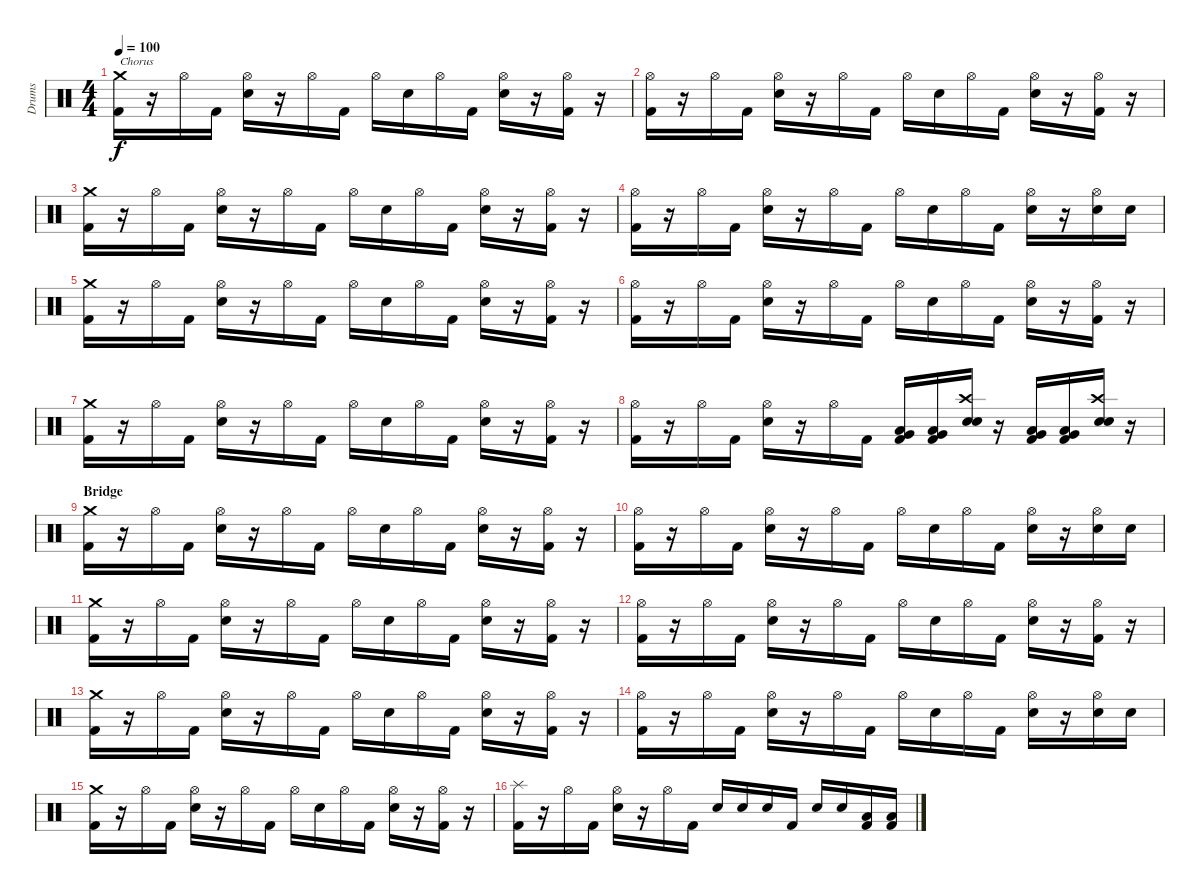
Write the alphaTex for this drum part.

\track ("Drums" "Drums") {instrument percussion}
\staff {score}
\articulation defaults
\ts (4 4)
\tempo 100
\clef neutral
\ks c
("Crash medium (hit)" "Kick (hit) 2").16{txt "Chorus " dy f} r.16 "Hi-Hat (open)".16 "Kick (hit) 2".16 ("Hi-Hat (open)" "Electric Snare (hit)").16 r.16 "Hi-Hat (open)".16 "Kick (hit) 2".16 "Hi-Hat (open)".16 "Electric Snare (hit)".16 "Hi-Hat (open)".16 "Kick (hit) 2".16 ("Hi-Hat (open)" "Electric Snare (hit)").16 r.16 ("Hi-Hat (open)" "Kick (hit) 2").16 r.16 |
("Hi-Hat (open)" "Kick (hit) 2").16 r.16 "Hi-Hat (open)".16 "Kick (hit) 2".16 ("Hi-Hat (open)" "Electric Snare (hit)").16 r.16 "Hi-Hat (open)".16 "Kick (hit) 2".16 "Hi-Hat (open)".16 "Electric Snare (hit)".16 "Hi-Hat (open)".16 "Kick (hit) 2".16 ("Hi-Hat (open)" "Electric Snare (hit)").16 r.16 ("Hi-Hat (open)" "Kick (hit) 2").16 r.16 |
("Crash medium (hit)" "Kick (hit) 2").16 r.16 "Hi-Hat (open)".16 "Kick (hit) 2".16 ("Hi-Hat (open)" "Electric Snare (hit)").16 r.16 "Hi-Hat (open)".16 "Kick (hit) 2".16 "Hi-Hat (open)".16 "Electric Snare (hit)".16 "Hi-Hat (open)".16 "Kick (hit) 2".16 ("Hi-Hat (open)" "Electric Snare (hit)").16 r.16 ("Hi-Hat (open)" "Kick (hit) 2").16 r.16 |
("Hi-Hat (open)" "Kick (hit) 2").16 r.16 "Hi-Hat (open)".16 "Kick (hit) 2".16 ("Hi-Hat (open)" "Electric Snare (hit)").16 r.16 "Hi-Hat (open)".16 "Kick (hit) 2".16 "Hi-Hat (open)".16 "Electric Snare (hit)".16 "Hi-Hat (open)".16 "Kick (hit) 2".16 ("Hi-Hat (open)" "Electric Snare (hit)").16 r.16 ("Hi-Hat (open)" "Electric Snare (hit)").16 "Electric Snare (hit)".16 |
("Crash medium (hit)" "Kick (hit) 2").16 r.16 "Hi-Hat (open)".16 "Kick (hit) 2".16 ("Hi-Hat (open)" "Electric Snare (hit)").16 r.16 "Hi-Hat (open)".16 "Kick (hit) 2".16 "Hi-Hat (open)".16 "Electric Snare (hit)".16 "Hi-Hat (open)".16 "Kick (hit) 2".16 ("Hi-Hat (open)" "Electric Snare (hit)").16 r.16 ("Hi-Hat (open)" "Kick (hit) 2").16 r.16 |
("Hi-Hat (open)" "Kick (hit) 2").16 r.16 "Hi-Hat (open)".16 "Kick (hit) 2".16 ("Hi-Hat (open)" "Electric Snare (hit)").16 r.16 "Hi-Hat (open)".16 "Kick (hit) 2".16 "Hi-Hat (open)".16 "Electric Snare (hit)".16 "Hi-Hat (open)".16 "Kick (hit) 2".16 ("Hi-Hat (open)" "Electric Snare (hit)").16 r.16 ("Hi-Hat (open)" "Kick (hit) 2").16 r.16 |
("Crash medium (hit)" "Kick (hit) 2").16 r.16 "Hi-Hat (open)".16 "Kick (hit) 2".16 ("Hi-Hat (open)" "Electric Snare (hit)").16 r.16 "Hi-Hat (open)".16 "Kick (hit) 2".16 "Hi-Hat (open)".16 "Electric Snare (hit)".16 "Hi-Hat (open)".16 "Kick (hit) 2".16 ("Hi-Hat (open)" "Electric Snare (hit)").16 r.16 ("Hi-Hat (open)" "Kick (hit) 2").16 r.16 |
("Hi-Hat (open)" "Kick (hit) 2").16 r.16 "Hi-Hat (open)".16 "Kick (hit) 2".16 ("Hi-Hat (open)" "Electric Snare (hit)").16 r.16 "Hi-Hat (open)".16 "Kick (hit) 2".16 ("Very Low Tom (hit)" "Low Floor Tom (hit)" "Kick (hit) 2").16 ("Very Low Tom (hit)" "Low Floor Tom (hit)" "Kick (hit) 2").16 ("Crash high (hit)" "Snare (hit) 2" "Electric Snare (hit)").16 r.16 ("Very Low Tom (hit)" "Low Floor Tom (hit)" "Kick (hit) 2").16 ("Very Low Tom (hit)" "Low Floor Tom (hit)" "Kick (hit) 2").16 ("Crash high (hit)" "Snare (hit) 2" "Electric Snare (hit)").16 r.16 |
\section ("" "Bridge")
("Crash medium (hit)" "Kick (hit) 2").16 r.16 "Hi-Hat (open)".16 "Kick (hit) 2".16 ("Hi-Hat (open)" "Electric Snare (hit)").16 r.16 "Hi-Hat (open)".16 "Kick (hit) 2".16 "Hi-Hat (open)".16 "Electric Snare (hit)".16 "Hi-Hat (open)".16 "Kick (hit) 2".16 ("Hi-Hat (open)" "Electric Snare (hit)").16 r.16 ("Hi-Hat (open)" "Kick (hit) 2").16 r.16 |
("Hi-Hat (open)" "Kick (hit) 2").16 r.16 "Hi-Hat (open)".16 "Kick (hit) 2".16 ("Hi-Hat (open)" "Electric Snare (hit)").16 r.16 "Hi-Hat (open)".16 "Kick (hit) 2".16 "Hi-Hat (open)".16 "Electric Snare (hit)".16 "Hi-Hat (open)".16 "Kick (hit) 2".16 ("Hi-Hat (open)" "Electric Snare (hit)").16 r.16 ("Hi-Hat (open)" "Electric Snare (hit)").16 "Electric Snare (hit)".16 |
("Crash medium (hit)" "Kick (hit) 2").16 r.16 "Hi-Hat (open)".16 "Kick (hit) 2".16 ("Hi-Hat (open)" "Electric Snare (hit)").16 r.16 "Hi-Hat (open)".16 "Kick (hit) 2".16 "Hi-Hat (open)".16 "Electric Snare (hit)".16 "Hi-Hat (open)".16 "Kick (hit) 2".16 ("Hi-Hat (open)" "Electric Snare (hit)").16 r.16 ("Hi-Hat (open)" "Kick (hit) 2").16 r.16 |
("Hi-Hat (open)" "Kick (hit) 2").16 r.16 "Hi-Hat (open)".16 "Kick (hit) 2".16 ("Hi-Hat (open)" "Electric Snare (hit)").16 r.16 "Hi-Hat (open)".16 "Kick (hit) 2".16 "Hi-Hat (open)".16 "Electric Snare (hit)".16 "Hi-Hat (open)".16 "Kick (hit) 2".16 ("Hi-Hat (open)" "Electric Snare (hit)").16 r.16 ("Hi-Hat (open)" "Kick (hit) 2").16 r.16 |
("Crash medium (hit)" "Kick (hit) 2").16 r.16 "Hi-Hat (open)".16 "Kick (hit) 2".16 ("Hi-Hat (open)" "Electric Snare (hit)").16 r.16 "Hi-Hat (open)".16 "Kick (hit) 2".16 "Hi-Hat (open)".16 "Electric Snare (hit)".16 "Hi-Hat (open)".16 "Kick (hit) 2".16 ("Hi-Hat (open)" "Electric Snare (hit)").16 r.16 ("Hi-Hat (open)" "Kick (hit) 2").16 r.16 |
("Hi-Hat (open)" "Kick (hit) 2").16 r.16 "Hi-Hat (open)".16 "Kick (hit) 2".16 ("Hi-Hat (open)" "Electric Snare (hit)").16 r.16 "Hi-Hat (open)".16 "Kick (hit) 2".16 "Hi-Hat (open)".16 "Electric Snare (hit)".16 "Hi-Hat (open)".16 "Kick (hit) 2".16 ("Hi-Hat (open)" "Electric Snare (hit)").16 r.16 ("Hi-Hat (open)" "Electric Snare (hit)").16 "Electric Snare (hit)".16 |
("Crash medium (hit)" "Kick (hit) 2").16 r.16 "Hi-Hat (open)".16 "Kick (hit) 2".16 ("Hi-Hat (open)" "Electric Snare (hit)").16 r.16 "Hi-Hat (open)".16 "Kick (hit) 2".16 "Hi-Hat (open)".16 "Electric Snare (hit)".16 "Hi-Hat (open)".16 "Kick (hit) 2".16 ("Hi-Hat (open)" "Electric Snare (hit)").16 r.16 ("Hi-Hat (open)" "Kick (hit) 2").16 r.16 |
("Splash (hit)" "Kick (hit) 2").16 r.16 "Hi-Hat (open)".16 "Kick (hit) 2".16 ("Hi-Hat (open)" "Electric Snare (hit)").16 r.16 "Hi-Hat (open)".16 "Kick (hit) 2".16 "Electric Snare (hit)".16 "Electric Snare (hit)".16 "Electric Snare (hit)".16 "Kick (hit) 2".16 "Electric Snare (hit)".16 "Electric Snare (hit)".16 ("Low Tom (hit)" "Kick (hit) 2").16 ("Low Tom (hit)" "Kick (hit) 2").16
